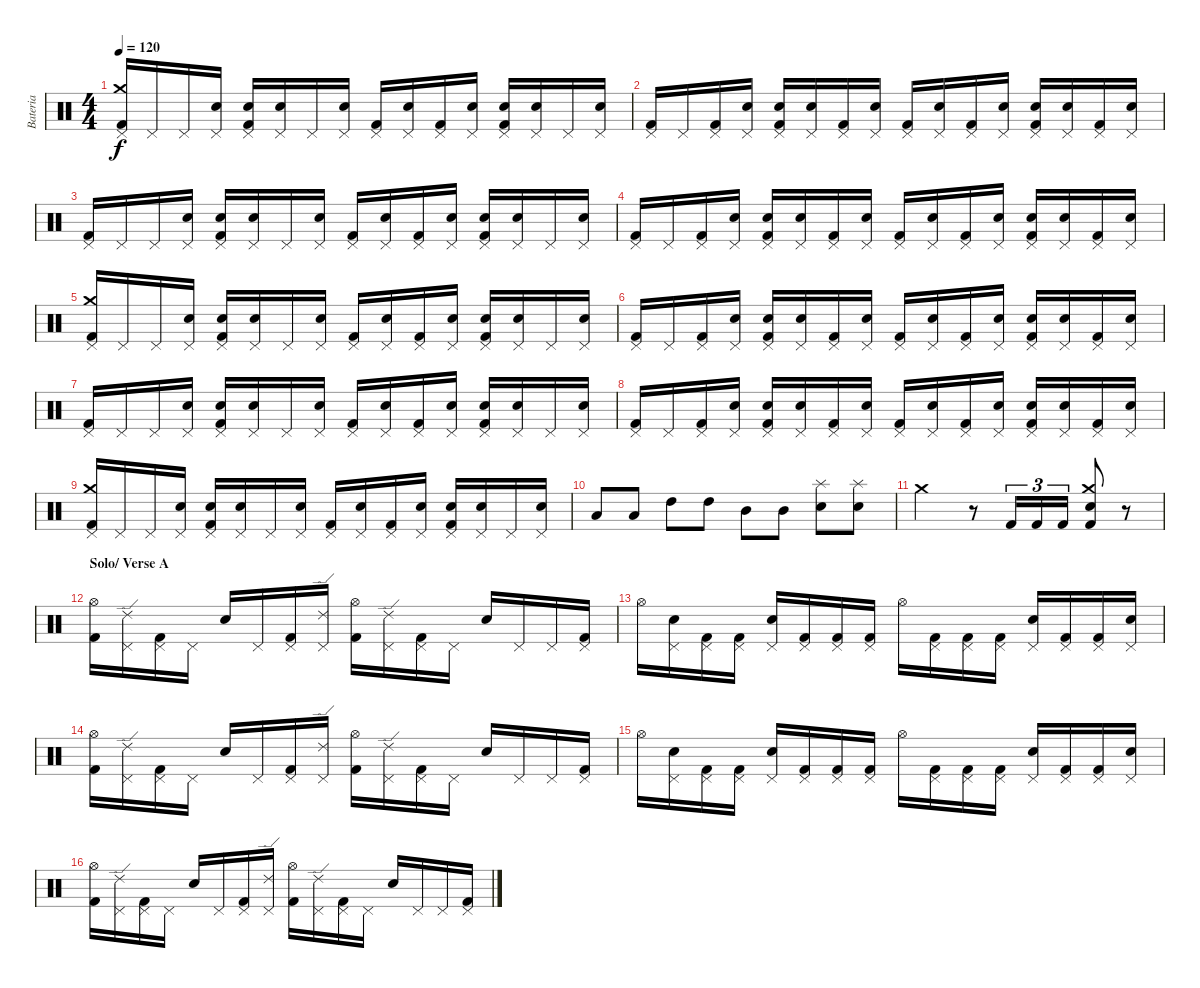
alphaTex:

\track ("Bateria" "Bateria") {instrument percussion}
\staff {score}
\articulation defaults
\ts (4 4)
\tempo 120
\clef neutral
\ks c
("Kick (hit) 2" "Crash medium (hit)" "Pedal Hi-Hat (hit)").16{dy f} "Pedal Hi-Hat (hit)".16 "Pedal Hi-Hat (hit)".16 ("Snare (hit)" "Pedal Hi-Hat (hit)").16 ("Kick (hit) 2" "Snare (hit) 2" "Pedal Hi-Hat (hit)").16 ("Snare (hit)" "Pedal Hi-Hat (hit)").16 "Pedal Hi-Hat (hit)".16 ("Snare (hit)" "Pedal Hi-Hat (hit)").16 ("Kick (hit) 2" "Pedal Hi-Hat (hit)").16 ("Snare (hit)" "Pedal Hi-Hat (hit)").16 ("Kick (hit) 2" "Pedal Hi-Hat (hit)").16 ("Snare (hit)" "Pedal Hi-Hat (hit)").16 ("Kick (hit) 2" "Snare (hit) 2" "Pedal Hi-Hat (hit)").16 ("Snare (hit)" "Pedal Hi-Hat (hit)").16 "Pedal Hi-Hat (hit)".16 ("Snare (hit)" "Pedal Hi-Hat (hit)").16 |
("Kick (hit) 2" "Pedal Hi-Hat (hit)").16 "Pedal Hi-Hat (hit)".16 ("Kick (hit) 2" "Pedal Hi-Hat (hit)").16 ("Snare (hit)" "Pedal Hi-Hat (hit)").16 ("Kick (hit) 2" "Snare (hit) 2" "Pedal Hi-Hat (hit)").16 ("Snare (hit)" "Pedal Hi-Hat (hit)").16 ("Kick (hit) 2" "Pedal Hi-Hat (hit)").16 ("Snare (hit)" "Pedal Hi-Hat (hit)").16 ("Kick (hit) 2" "Pedal Hi-Hat (hit)").16 ("Snare (hit)" "Pedal Hi-Hat (hit)").16 ("Kick (hit) 2" "Pedal Hi-Hat (hit)").16 ("Snare (hit)" "Pedal Hi-Hat (hit)").16 ("Kick (hit) 2" "Snare (hit) 2" "Pedal Hi-Hat (hit)").16 ("Snare (hit)" "Pedal Hi-Hat (hit)").16 ("Kick (hit) 2" "Pedal Hi-Hat (hit)").16 ("Snare (hit)" "Pedal Hi-Hat (hit)").16 |
("Kick (hit) 2" "Pedal Hi-Hat (hit)").16 "Pedal Hi-Hat (hit)".16 "Pedal Hi-Hat (hit)".16 ("Snare (hit)" "Pedal Hi-Hat (hit)").16 ("Kick (hit) 2" "Snare (hit) 2" "Pedal Hi-Hat (hit)").16 ("Snare (hit)" "Pedal Hi-Hat (hit)").16 "Pedal Hi-Hat (hit)".16 ("Snare (hit)" "Pedal Hi-Hat (hit)").16 ("Kick (hit) 2" "Pedal Hi-Hat (hit)").16 ("Snare (hit)" "Pedal Hi-Hat (hit)").16 ("Kick (hit) 2" "Pedal Hi-Hat (hit)").16 ("Snare (hit)" "Pedal Hi-Hat (hit)").16 ("Kick (hit) 2" "Snare (hit) 2" "Pedal Hi-Hat (hit)").16 ("Snare (hit)" "Pedal Hi-Hat (hit)").16 "Pedal Hi-Hat (hit)".16 ("Snare (hit)" "Pedal Hi-Hat (hit)").16 |
("Kick (hit) 2" "Pedal Hi-Hat (hit)").16 "Pedal Hi-Hat (hit)".16 ("Kick (hit) 2" "Pedal Hi-Hat (hit)").16 ("Snare (hit)" "Pedal Hi-Hat (hit)").16 ("Kick (hit) 2" "Snare (hit) 2" "Pedal Hi-Hat (hit)").16 ("Snare (hit)" "Pedal Hi-Hat (hit)").16 ("Kick (hit) 2" "Pedal Hi-Hat (hit)").16 ("Snare (hit)" "Pedal Hi-Hat (hit)").16 ("Kick (hit) 2" "Pedal Hi-Hat (hit)").16 ("Snare (hit)" "Pedal Hi-Hat (hit)").16 ("Kick (hit) 2" "Pedal Hi-Hat (hit)").16 ("Snare (hit)" "Pedal Hi-Hat (hit)").16 ("Kick (hit) 2" "Snare (hit) 2" "Pedal Hi-Hat (hit)").16 ("Snare (hit)" "Pedal Hi-Hat (hit)").16 ("Kick (hit) 2" "Pedal Hi-Hat (hit)").16 ("Snare (hit)" "Pedal Hi-Hat (hit)").16 |
("Kick (hit) 2" "Crash medium (hit)" "Pedal Hi-Hat (hit)").16 "Pedal Hi-Hat (hit)".16 "Pedal Hi-Hat (hit)".16 ("Snare (hit)" "Pedal Hi-Hat (hit)").16 ("Kick (hit) 2" "Snare (hit) 2" "Pedal Hi-Hat (hit)").16 ("Snare (hit)" "Pedal Hi-Hat (hit)").16 "Pedal Hi-Hat (hit)".16 ("Snare (hit)" "Pedal Hi-Hat (hit)").16 ("Kick (hit) 2" "Pedal Hi-Hat (hit)").16 ("Snare (hit)" "Pedal Hi-Hat (hit)").16 ("Kick (hit) 2" "Pedal Hi-Hat (hit)").16 ("Snare (hit)" "Pedal Hi-Hat (hit)").16 ("Kick (hit) 2" "Snare (hit) 2" "Pedal Hi-Hat (hit)").16 ("Snare (hit)" "Pedal Hi-Hat (hit)").16 "Pedal Hi-Hat (hit)".16 ("Snare (hit)" "Pedal Hi-Hat (hit)").16 |
("Kick (hit) 2" "Pedal Hi-Hat (hit)").16 "Pedal Hi-Hat (hit)".16 ("Kick (hit) 2" "Pedal Hi-Hat (hit)").16 ("Snare (hit)" "Pedal Hi-Hat (hit)").16 ("Kick (hit) 2" "Snare (hit) 2" "Pedal Hi-Hat (hit)").16 ("Snare (hit)" "Pedal Hi-Hat (hit)").16 ("Kick (hit) 2" "Pedal Hi-Hat (hit)").16 ("Snare (hit)" "Pedal Hi-Hat (hit)").16 ("Kick (hit) 2" "Pedal Hi-Hat (hit)").16 ("Snare (hit)" "Pedal Hi-Hat (hit)").16 ("Kick (hit) 2" "Pedal Hi-Hat (hit)").16 ("Snare (hit)" "Pedal Hi-Hat (hit)").16 ("Kick (hit) 2" "Snare (hit) 2" "Pedal Hi-Hat (hit)").16 ("Snare (hit)" "Pedal Hi-Hat (hit)").16 ("Kick (hit) 2" "Pedal Hi-Hat (hit)").16 ("Snare (hit)" "Pedal Hi-Hat (hit)").16 |
("Kick (hit) 2" "Pedal Hi-Hat (hit)").16 "Pedal Hi-Hat (hit)".16 "Pedal Hi-Hat (hit)".16 ("Snare (hit)" "Pedal Hi-Hat (hit)").16 ("Kick (hit) 2" "Snare (hit) 2" "Pedal Hi-Hat (hit)").16 ("Snare (hit)" "Pedal Hi-Hat (hit)").16 "Pedal Hi-Hat (hit)".16 ("Snare (hit)" "Pedal Hi-Hat (hit)").16 ("Kick (hit) 2" "Pedal Hi-Hat (hit)").16 ("Snare (hit)" "Pedal Hi-Hat (hit)").16 ("Kick (hit) 2" "Pedal Hi-Hat (hit)").16 ("Snare (hit)" "Pedal Hi-Hat (hit)").16 ("Kick (hit) 2" "Snare (hit) 2" "Pedal Hi-Hat (hit)").16 ("Snare (hit)" "Pedal Hi-Hat (hit)").16 "Pedal Hi-Hat (hit)".16 ("Snare (hit)" "Pedal Hi-Hat (hit)").16 |
("Kick (hit) 2" "Pedal Hi-Hat (hit)").16 "Pedal Hi-Hat (hit)".16 ("Kick (hit) 2" "Pedal Hi-Hat (hit)").16 ("Snare (hit)" "Pedal Hi-Hat (hit)").16 ("Kick (hit) 2" "Snare (hit) 2" "Pedal Hi-Hat (hit)").16 ("Snare (hit)" "Pedal Hi-Hat (hit)").16 ("Kick (hit) 2" "Pedal Hi-Hat (hit)").16 ("Snare (hit)" "Pedal Hi-Hat (hit)").16 ("Kick (hit) 2" "Pedal Hi-Hat (hit)").16 ("Snare (hit)" "Pedal Hi-Hat (hit)").16 ("Kick (hit) 2" "Pedal Hi-Hat (hit)").16 ("Snare (hit)" "Pedal Hi-Hat (hit)").16 ("Kick (hit) 2" "Snare (hit) 2" "Pedal Hi-Hat (hit)").16 ("Snare (hit)" "Pedal Hi-Hat (hit)").16 ("Kick (hit) 2" "Pedal Hi-Hat (hit)").16 ("Snare (hit)" "Pedal Hi-Hat (hit)").16 |
("Kick (hit) 2" "Crash medium (hit)" "Pedal Hi-Hat (hit)").16 "Pedal Hi-Hat (hit)".16 "Pedal Hi-Hat (hit)".16 ("Snare (hit)" "Pedal Hi-Hat (hit)").16 ("Kick (hit) 2" "Snare (hit) 2" "Pedal Hi-Hat (hit)").16 ("Snare (hit)" "Pedal Hi-Hat (hit)").16 "Pedal Hi-Hat (hit)".16 ("Snare (hit)" "Pedal Hi-Hat (hit)").16 ("Kick (hit) 2" "Pedal Hi-Hat (hit)").16 ("Snare (hit)" "Pedal Hi-Hat (hit)").16 ("Kick (hit) 2" "Pedal Hi-Hat (hit)").16 ("Snare (hit)" "Pedal Hi-Hat (hit)").16 ("Kick (hit) 2" "Snare (hit) 2" "Pedal Hi-Hat (hit)").16 ("Snare (hit)" "Pedal Hi-Hat (hit)").16 "Pedal Hi-Hat (hit)".16 ("Snare (hit)" "Pedal Hi-Hat (hit)").16 |
"Low Tom (hit)".8 "Low Tom (hit)".8 "High Tom (hit)".8 "High Tom (hit)".8 "Mid Tom (hit)".8 "Mid Tom (hit)".8 ("Snare (hit) 2" "Splash (hit)").8 ("Snare (hit) 2" "Splash (hit)").8 |
"Crash medium (hit)".2 r.8 "Kick (hit) 2".16{tu (3 2)} "Kick (hit) 2".16{tu (3 2)} "Kick (hit) 2".16{tu (3 2)} ("Kick (hit) 2" "Crash medium (hit)" "Snare (hit) 2").8 r.8 |
\section ("" "Solo/ Verse A")
("Kick (hit) 2" "Hi-Hat (open)").16 ("Ride (edge) 2" "Pedal Hi-Hat (hit)").16 ("Kick (hit) 2" "Pedal Hi-Hat (hit)").16 "Pedal Hi-Hat (hit)".16 "Snare (hit) 2".16 "Pedal Hi-Hat (hit)".16 ("Kick (hit) 2" "Pedal Hi-Hat (hit)").16 ("Ride (edge) 2" "Pedal Hi-Hat (hit)").16 ("Kick (hit) 2" "Hi-Hat (open)").16 ("Ride (edge) 2" "Pedal Hi-Hat (hit)").16 ("Kick (hit) 2" "Pedal Hi-Hat (hit)").16 "Pedal Hi-Hat (hit)".16 "Snare (hit) 2".16 "Pedal Hi-Hat (hit)".16 "Pedal Hi-Hat (hit)".16 ("Kick (hit) 2" "Pedal Hi-Hat (hit)").16 |
"Hi-Hat (open)".16 ("Snare (hit) 2" "Pedal Hi-Hat (hit)").16 ("Kick (hit) 2" "Pedal Hi-Hat (hit)").16 ("Kick (hit) 2" "Pedal Hi-Hat (hit)").16 ("Snare (hit) 2" "Pedal Hi-Hat (hit)").16 ("Kick (hit) 2" "Pedal Hi-Hat (hit)").16 ("Kick (hit) 2" "Pedal Hi-Hat (hit)").16 ("Kick (hit) 2" "Pedal Hi-Hat (hit)").16 "Hi-Hat (open)".16 ("Kick (hit) 2" "Pedal Hi-Hat (hit)").16 ("Kick (hit) 2" "Pedal Hi-Hat (hit)").16 ("Kick (hit) 2" "Pedal Hi-Hat (hit)").16 ("Snare (hit) 2" "Pedal Hi-Hat (hit)").16 ("Kick (hit) 2" "Pedal Hi-Hat (hit)").16 ("Kick (hit) 2" "Pedal Hi-Hat (hit)").16 ("Snare (hit) 2" "Pedal Hi-Hat (hit)").16 |
("Kick (hit) 2" "Hi-Hat (open)").16 ("Ride (edge) 2" "Pedal Hi-Hat (hit)").16 ("Kick (hit) 2" "Pedal Hi-Hat (hit)").16 "Pedal Hi-Hat (hit)".16 "Snare (hit) 2".16 "Pedal Hi-Hat (hit)".16 ("Kick (hit) 2" "Pedal Hi-Hat (hit)").16 ("Ride (edge) 2" "Pedal Hi-Hat (hit)").16 ("Kick (hit) 2" "Hi-Hat (open)").16 ("Ride (edge) 2" "Pedal Hi-Hat (hit)").16 ("Kick (hit) 2" "Pedal Hi-Hat (hit)").16 "Pedal Hi-Hat (hit)".16 "Snare (hit) 2".16 "Pedal Hi-Hat (hit)".16 "Pedal Hi-Hat (hit)".16 ("Kick (hit) 2" "Pedal Hi-Hat (hit)").16 |
"Hi-Hat (open)".16 ("Snare (hit) 2" "Pedal Hi-Hat (hit)").16 ("Kick (hit) 2" "Pedal Hi-Hat (hit)").16 ("Kick (hit) 2" "Pedal Hi-Hat (hit)").16 ("Snare (hit) 2" "Pedal Hi-Hat (hit)").16 ("Kick (hit) 2" "Pedal Hi-Hat (hit)").16 ("Kick (hit) 2" "Pedal Hi-Hat (hit)").16 ("Kick (hit) 2" "Pedal Hi-Hat (hit)").16 "Hi-Hat (open)".16 ("Kick (hit) 2" "Pedal Hi-Hat (hit)").16 ("Kick (hit) 2" "Pedal Hi-Hat (hit)").16 ("Kick (hit) 2" "Pedal Hi-Hat (hit)").16 ("Snare (hit) 2" "Pedal Hi-Hat (hit)").16 ("Kick (hit) 2" "Pedal Hi-Hat (hit)").16 ("Kick (hit) 2" "Pedal Hi-Hat (hit)").16 ("Snare (hit) 2" "Pedal Hi-Hat (hit)").16 |
("Kick (hit) 2" "Hi-Hat (open)").16 ("Ride (edge) 2" "Pedal Hi-Hat (hit)").16 ("Kick (hit) 2" "Pedal Hi-Hat (hit)").16 "Pedal Hi-Hat (hit)".16 "Snare (hit) 2".16 "Pedal Hi-Hat (hit)".16 ("Kick (hit) 2" "Pedal Hi-Hat (hit)").16 ("Ride (edge) 2" "Pedal Hi-Hat (hit)").16 ("Kick (hit) 2" "Hi-Hat (open)").16 ("Ride (edge) 2" "Pedal Hi-Hat (hit)").16 ("Kick (hit) 2" "Pedal Hi-Hat (hit)").16 "Pedal Hi-Hat (hit)".16 "Snare (hit) 2".16 "Pedal Hi-Hat (hit)".16 "Pedal Hi-Hat (hit)".16 ("Kick (hit) 2" "Pedal Hi-Hat (hit)").16
